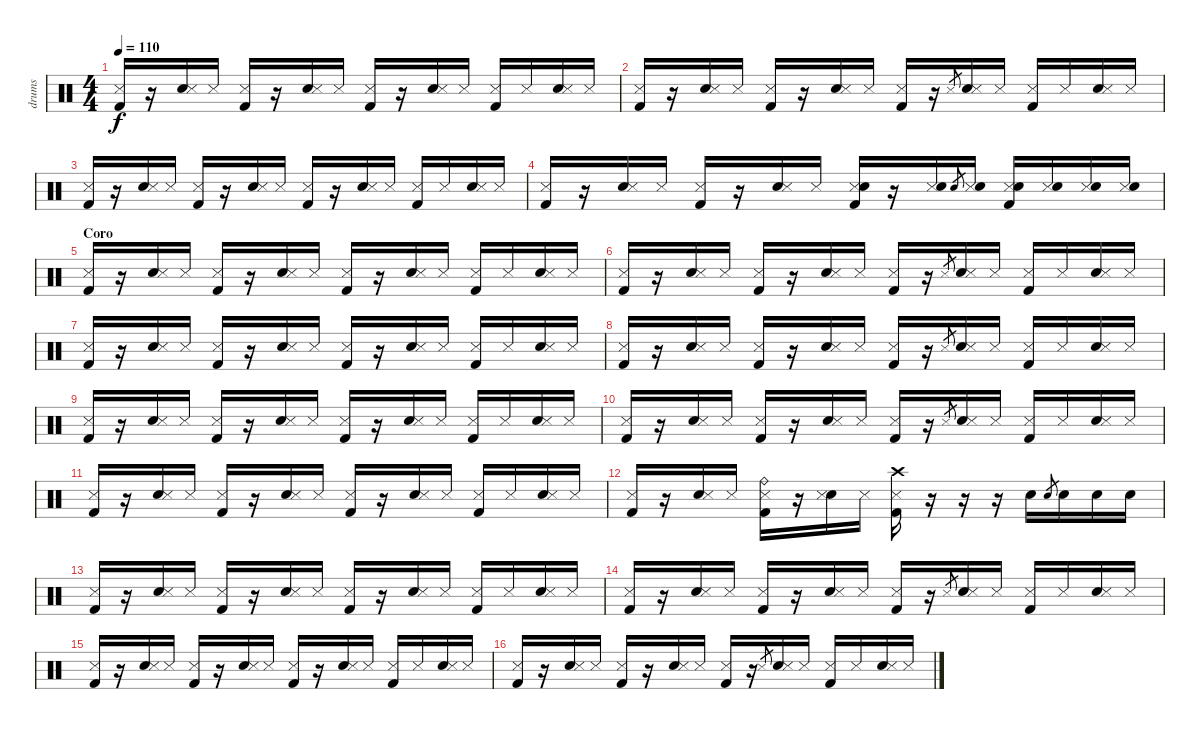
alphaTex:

\track ("drums" "drums") {instrument percussion}
\staff {score}
\articulation defaults
\ts (4 4)
\tempo 110
\clef neutral
\ks c
("Kick (hit) 2" "Snare (side stick) 3").16{dy f} r.16 ("Electric Snare (hit)" "Snare (side stick) 3").16 "Snare (side stick) 3".16 ("Kick (hit) 2" "Snare (side stick) 3").16 r.16 ("Electric Snare (hit)" "Snare (side stick) 3").16 "Snare (side stick) 3".16 ("Kick (hit) 2" "Snare (side stick) 3").16 r.16 ("Electric Snare (hit)" "Snare (side stick) 3").16 "Snare (side stick) 3".16 ("Kick (hit) 2" "Snare (side stick) 3").16 "Snare (side stick) 3".16 ("Electric Snare (hit)" "Snare (side stick) 3").16 "Snare (side stick) 3".16 |
("Kick (hit) 2" "Snare (side stick) 3").16 r.16 ("Electric Snare (hit)" "Snare (side stick) 3").16 "Snare (side stick) 3".16 ("Kick (hit) 2" "Snare (side stick) 3").16 r.16 ("Electric Snare (hit)" "Snare (side stick) 3").16 "Snare (side stick) 3".16 ("Kick (hit) 2" "Snare (side stick) 3").16 r.16 "Snare (side stick) 3".8{gr} ("Electric Snare (hit)" "Snare (side stick) 3").16 "Snare (side stick) 3".16 ("Kick (hit) 2" "Snare (side stick) 3").16 "Snare (side stick) 3".16 ("Electric Snare (hit)" "Snare (side stick) 3").16 "Snare (side stick) 3".16 |
("Kick (hit) 2" "Snare (side stick) 3").16 r.16 ("Electric Snare (hit)" "Snare (side stick) 3").16 "Snare (side stick) 3".16 ("Kick (hit) 2" "Snare (side stick) 3").16 r.16 ("Electric Snare (hit)" "Snare (side stick) 3").16 "Snare (side stick) 3".16 ("Kick (hit) 2" "Snare (side stick) 3").16 r.16 ("Electric Snare (hit)" "Snare (side stick) 3").16 "Snare (side stick) 3".16 ("Kick (hit) 2" "Snare (side stick) 3").16 "Snare (side stick) 3".16 ("Electric Snare (hit)" "Snare (side stick) 3").16 "Snare (side stick) 3".16 |
("Kick (hit) 2" "Snare (side stick) 3").16 r.16 ("Electric Snare (hit)" "Snare (side stick) 3").16 "Snare (side stick) 3".16 ("Kick (hit) 2" "Snare (side stick) 3").16 r.16 ("Electric Snare (hit)" "Snare (side stick) 3").16 "Snare (side stick) 3".16 ("Kick (hit) 2" "Snare (side stick) 3" "Snare (hit) 2").16 r.16 ("Snare (side stick) 3" "Snare (hit) 2").16 "Snare (hit) 2".8{gr} ("Snare (side stick) 3" "Snare (hit) 2").16 ("Kick (hit) 2" "Snare (side stick) 3" "Snare (hit) 2").16 ("Snare (side stick) 3" "Snare (hit) 2").16 ("Snare (side stick) 3" "Snare (hit) 2").16 ("Snare (side stick) 3" "Snare (hit) 2").16 |
\section ("" "Coro")
("Kick (hit) 2" "Snare (side stick) 3").16 r.16 ("Electric Snare (hit)" "Snare (side stick) 3").16 "Snare (side stick) 3".16 ("Kick (hit) 2" "Snare (side stick) 3").16 r.16 ("Electric Snare (hit)" "Snare (side stick) 3").16 "Snare (side stick) 3".16 ("Kick (hit) 2" "Snare (side stick) 3").16 r.16 ("Electric Snare (hit)" "Snare (side stick) 3").16 "Snare (side stick) 3".16 ("Kick (hit) 2" "Snare (side stick) 3").16 "Snare (side stick) 3".16 ("Electric Snare (hit)" "Snare (side stick) 3").16 "Snare (side stick) 3".16 |
("Kick (hit) 2" "Snare (side stick) 3").16 r.16 ("Electric Snare (hit)" "Snare (side stick) 3").16 "Snare (side stick) 3".16 ("Kick (hit) 2" "Snare (side stick) 3").16 r.16 ("Electric Snare (hit)" "Snare (side stick) 3").16 "Snare (side stick) 3".16 ("Kick (hit) 2" "Snare (side stick) 3").16 r.16 "Snare (side stick) 3".8{gr} ("Electric Snare (hit)" "Snare (side stick) 3").16 "Snare (side stick) 3".16 ("Kick (hit) 2" "Snare (side stick) 3").16 "Snare (side stick) 3".16 ("Electric Snare (hit)" "Snare (side stick) 3").16 "Snare (side stick) 3".16 |
("Kick (hit) 2" "Snare (side stick) 3").16 r.16 ("Electric Snare (hit)" "Snare (side stick) 3").16 "Snare (side stick) 3".16 ("Kick (hit) 2" "Snare (side stick) 3").16 r.16 ("Electric Snare (hit)" "Snare (side stick) 3").16 "Snare (side stick) 3".16 ("Kick (hit) 2" "Snare (side stick) 3").16 r.16 ("Electric Snare (hit)" "Snare (side stick) 3").16 "Snare (side stick) 3".16 ("Kick (hit) 2" "Snare (side stick) 3").16 "Snare (side stick) 3".16 ("Electric Snare (hit)" "Snare (side stick) 3").16 "Snare (side stick) 3".16 |
("Kick (hit) 2" "Snare (side stick) 3").16 r.16 ("Electric Snare (hit)" "Snare (side stick) 3").16 "Snare (side stick) 3".16 ("Kick (hit) 2" "Snare (side stick) 3").16 r.16 ("Electric Snare (hit)" "Snare (side stick) 3").16 "Snare (side stick) 3".16 ("Kick (hit) 2" "Snare (side stick) 3").16 r.16 "Snare (side stick) 3".8{gr} ("Electric Snare (hit)" "Snare (side stick) 3").16 "Snare (side stick) 3".16 ("Kick (hit) 2" "Snare (side stick) 3").16 "Snare (side stick) 3".16 ("Electric Snare (hit)" "Snare (side stick) 3").16 "Snare (side stick) 3".16 |
("Kick (hit) 2" "Snare (side stick) 3").16 r.16 ("Electric Snare (hit)" "Snare (side stick) 3").16 "Snare (side stick) 3".16 ("Kick (hit) 2" "Snare (side stick) 3").16 r.16 ("Electric Snare (hit)" "Snare (side stick) 3").16 "Snare (side stick) 3".16 ("Kick (hit) 2" "Snare (side stick) 3").16 r.16 ("Electric Snare (hit)" "Snare (side stick) 3").16 "Snare (side stick) 3".16 ("Kick (hit) 2" "Snare (side stick) 3").16 "Snare (side stick) 3".16 ("Electric Snare (hit)" "Snare (side stick) 3").16 "Snare (side stick) 3".16 |
("Kick (hit) 2" "Snare (side stick) 3").16 r.16 ("Electric Snare (hit)" "Snare (side stick) 3").16 "Snare (side stick) 3".16 ("Kick (hit) 2" "Snare (side stick) 3").16 r.16 ("Electric Snare (hit)" "Snare (side stick) 3").16 "Snare (side stick) 3".16 ("Kick (hit) 2" "Snare (side stick) 3").16 r.16 "Snare (side stick) 3".8{gr} ("Electric Snare (hit)" "Snare (side stick) 3").16 "Snare (side stick) 3".16 ("Kick (hit) 2" "Snare (side stick) 3").16 "Snare (side stick) 3".16 ("Electric Snare (hit)" "Snare (side stick) 3").16 "Snare (side stick) 3".16 |
("Kick (hit) 2" "Snare (side stick) 3").16 r.16 ("Electric Snare (hit)" "Snare (side stick) 3").16 "Snare (side stick) 3".16 ("Kick (hit) 2" "Snare (side stick) 3").16 r.16 ("Electric Snare (hit)" "Snare (side stick) 3").16 "Snare (side stick) 3".16 ("Kick (hit) 2" "Snare (side stick) 3").16 r.16 ("Electric Snare (hit)" "Snare (side stick) 3").16 "Snare (side stick) 3".16 ("Kick (hit) 2" "Snare (side stick) 3").16 "Snare (side stick) 3".16 ("Electric Snare (hit)" "Snare (side stick) 3").16 "Snare (side stick) 3".16 |
("Kick (hit) 2" "Snare (side stick) 3").16 r.16 ("Electric Snare (hit)" "Snare (side stick) 3").16 "Snare (side stick) 3".16 ("Kick (hit) 2" "Ride (bell)" "Snare (side stick) 3").16 r.16 ("Electric Snare (hit)" "Snare (side stick) 3").16 "Snare (side stick) 3".16 ("Kick (hit) 2" "Crash high (hit)" "Snare (side stick) 3").16 r.16 r.16 r.16 "Snare (hit) 2".16 "Snare (hit) 2".8{gr} "Snare (hit) 2".16 "Snare (hit) 2".16 "Snare (hit) 2".16 |
("Kick (hit) 2" "Snare (side stick) 3").16 r.16 ("Electric Snare (hit)" "Snare (side stick) 3").16 "Snare (side stick) 3".16 ("Kick (hit) 2" "Snare (side stick) 3").16 r.16 ("Electric Snare (hit)" "Snare (side stick) 3").16 "Snare (side stick) 3".16 ("Kick (hit) 2" "Snare (side stick) 3").16 r.16 ("Electric Snare (hit)" "Snare (side stick) 3").16 "Snare (side stick) 3".16 ("Kick (hit) 2" "Snare (side stick) 3").16 "Snare (side stick) 3".16 ("Electric Snare (hit)" "Snare (side stick) 3").16 "Snare (side stick) 3".16 |
("Kick (hit) 2" "Snare (side stick) 3").16 r.16 ("Electric Snare (hit)" "Snare (side stick) 3").16 "Snare (side stick) 3".16 ("Kick (hit) 2" "Snare (side stick) 3").16 r.16 ("Electric Snare (hit)" "Snare (side stick) 3").16 "Snare (side stick) 3".16 ("Kick (hit) 2" "Snare (side stick) 3").16 r.16 "Snare (side stick) 3".8{gr} ("Electric Snare (hit)" "Snare (side stick) 3").16 "Snare (side stick) 3".16 ("Kick (hit) 2" "Snare (side stick) 3").16 "Snare (side stick) 3".16 ("Electric Snare (hit)" "Snare (side stick) 3").16 "Snare (side stick) 3".16 |
("Kick (hit) 2" "Snare (side stick) 3").16 r.16 ("Electric Snare (hit)" "Snare (side stick) 3").16 "Snare (side stick) 3".16 ("Kick (hit) 2" "Snare (side stick) 3").16 r.16 ("Electric Snare (hit)" "Snare (side stick) 3").16 "Snare (side stick) 3".16 ("Kick (hit) 2" "Snare (side stick) 3").16 r.16 ("Electric Snare (hit)" "Snare (side stick) 3").16 "Snare (side stick) 3".16 ("Kick (hit) 2" "Snare (side stick) 3").16 "Snare (side stick) 3".16 ("Electric Snare (hit)" "Snare (side stick) 3").16 "Snare (side stick) 3".16 |
("Kick (hit) 2" "Snare (side stick) 3").16 r.16 ("Electric Snare (hit)" "Snare (side stick) 3").16 "Snare (side stick) 3".16 ("Kick (hit) 2" "Snare (side stick) 3").16 r.16 ("Electric Snare (hit)" "Snare (side stick) 3").16 "Snare (side stick) 3".16 ("Kick (hit) 2" "Snare (side stick) 3").16 r.16 "Snare (side stick) 3".8{gr} ("Electric Snare (hit)" "Snare (side stick) 3").16 "Snare (side stick) 3".16 ("Kick (hit) 2" "Snare (side stick) 3").16 "Snare (side stick) 3".16 ("Electric Snare (hit)" "Snare (side stick) 3").16 "Snare (side stick) 3".16
